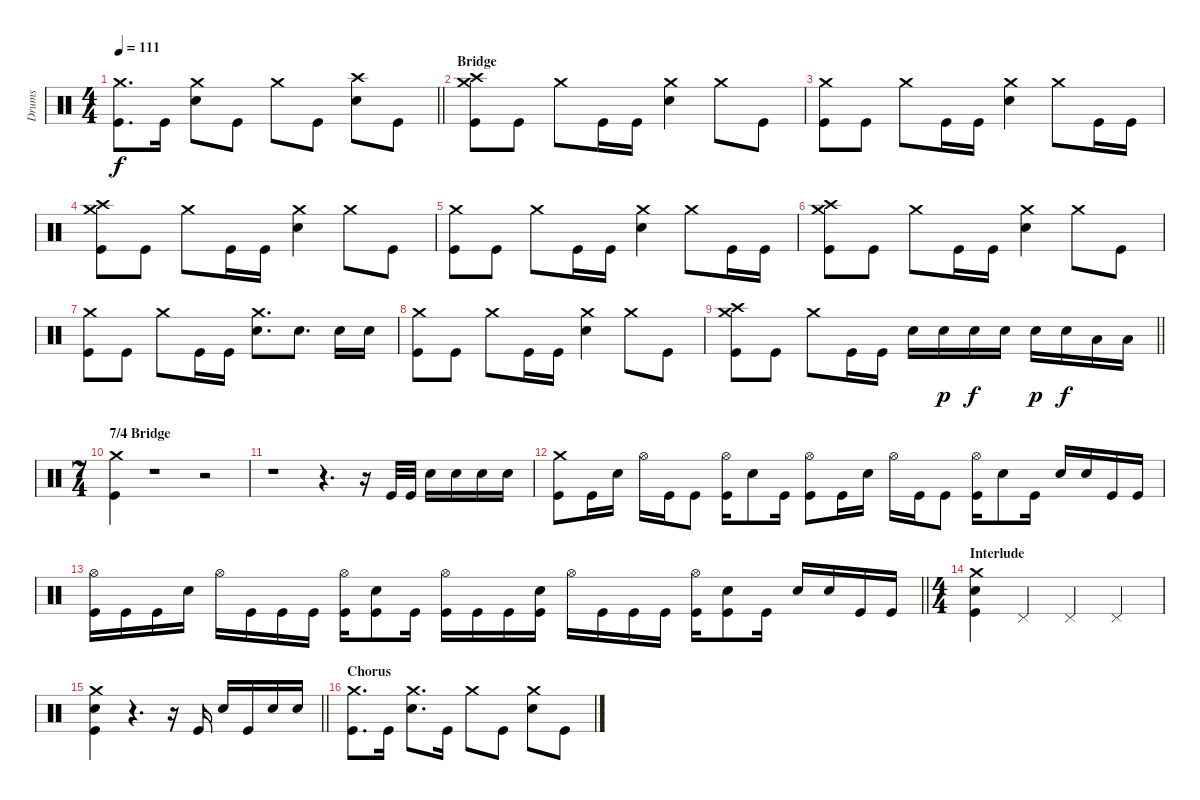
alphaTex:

\track ("Drums" "Drums") {instrument percussion}
\staff {score}
\articulation defaults
\ts (4 4)
\tempo 111
\clef neutral
\barLineRight lightlight
\ks c
("Crash medium (hit)" "Kick (hit)").8{d dy f} "Kick (hit)".16 ("Crash medium (hit)" "Electric Snare (hit)").8 "Kick (hit)".8 "Crash medium (hit)".8 "Kick (hit)".8 ("Crash high (hit)" "Electric Snare (hit)").8 "Kick (hit)".8 |
\section ("" "Bridge")
("Crash medium (hit)" "Crash high (hit)" "Kick (hit)").8 "Kick (hit)".8 "Crash medium (hit)".8 "Kick (hit)".16 "Kick (hit)".16 ("Crash medium (hit)" "Electric Snare (hit)").4 "Crash medium (hit)".8 "Kick (hit)".8 |
("Crash medium (hit)" "Kick (hit)").8 "Kick (hit)".8 "Crash medium (hit)".8 "Kick (hit)".16 "Kick (hit)".16 ("Crash medium (hit)" "Electric Snare (hit)").4 "Crash medium (hit)".8 "Kick (hit)".16 "Kick (hit)".16 |
("Crash medium (hit)" "Crash high (hit)" "Kick (hit)").8 "Kick (hit)".8 "Crash medium (hit)".8 "Kick (hit)".16 "Kick (hit)".16 ("Crash medium (hit)" "Electric Snare (hit)").4 "Crash medium (hit)".8 "Kick (hit)".8 |
("Crash medium (hit)" "Kick (hit)").8 "Kick (hit)".8 "Crash medium (hit)".8 "Kick (hit)".16 "Kick (hit)".16 ("Crash medium (hit)" "Electric Snare (hit)").4 "Crash medium (hit)".8 "Kick (hit)".16 "Kick (hit)".16 |
("Crash medium (hit)" "Crash high (hit)" "Kick (hit)").8 "Kick (hit)".8 "Crash medium (hit)".8 "Kick (hit)".16 "Kick (hit)".16 ("Crash medium (hit)" "Electric Snare (hit)").4 "Crash medium (hit)".8 "Kick (hit)".8 |
("Crash medium (hit)" "Kick (hit)").8 "Kick (hit)".8 "Crash medium (hit)".8 "Kick (hit)".16 "Kick (hit)".16 ("Crash medium (hit)" "Electric Snare (hit)").8{d} "Electric Snare (hit)".8{d} "Electric Snare (hit)".16 "Electric Snare (hit)".16 |
("Crash medium (hit)" "Kick (hit)").8 "Kick (hit)".8 "Crash medium (hit)".8 "Kick (hit)".16 "Kick (hit)".16 ("Crash medium (hit)" "Electric Snare (hit)").4 "Crash medium (hit)".8 "Kick (hit)".8 |
\barLineRight lightlight
("Crash medium (hit)" "Crash high (hit)" "Kick (hit)").8 "Kick (hit)".8 "Crash medium (hit)".8 "Kick (hit)".16 "Kick (hit)".16 "Electric Snare (hit)".16 "Electric Snare (hit)".16{dy p} "Electric Snare (hit)".16{dy f} "Electric Snare (hit)".16 "Electric Snare (hit)".16{dy p} "Electric Snare (hit)".16{dy f} "Low Floor Tom (hit)".16 "Low Floor Tom (hit)".16 |
\ts (7 4)
\section ("" "7/4 Bridge")
("Crash medium (hit)" "Kick (hit)").4 r.1 r.2 |
r.1 r.4{d} r.16 "Kick (hit)".32 "Kick (hit)".32 "Electric Snare (hit)".16 "Electric Snare (hit)".16 "Electric Snare (hit)".16 "Electric Snare (hit)".16 |
("Crash medium (hit)" "Kick (hit)").8 "Kick (hit)".16 "Electric Snare (hit)".16 "Hi-Hat (open)".16 "Kick (hit)".16 "Kick (hit)".8 ("Hi-Hat (open)" "Kick (hit)").16 "Electric Snare (hit)".8 "Kick (hit)".16 ("Hi-Hat (open)" "Kick (hit)").8 "Kick (hit)".16 "Electric Snare (hit)".16 "Hi-Hat (open)".16 "Kick (hit)".16 "Kick (hit)".8 ("Hi-Hat (open)" "Kick (hit)").16 "Electric Snare (hit)".8 "Kick (hit)".16 "Electric Snare (hit)".16 "Electric Snare (hit)".16 "Kick (hit)".16 "Kick (hit)".16 |
\barLineRight lightlight
("Hi-Hat (open)" "Kick (hit)").16 "Kick (hit)".16 "Kick (hit)".16 "Electric Snare (hit)".16 "Hi-Hat (open)".16 "Kick (hit)".16 "Kick (hit)".16 "Kick (hit)".16 ("Hi-Hat (open)" "Kick (hit)").16 ("Electric Snare (hit)" "Kick (hit)").8 "Kick (hit)".16 ("Hi-Hat (open)" "Kick (hit)").16 "Kick (hit)".16 "Kick (hit)".16 ("Electric Snare (hit)" "Kick (hit)").16 "Hi-Hat (open)".16 "Kick (hit)".16 "Kick (hit)".16 "Kick (hit)".16 ("Hi-Hat (open)" "Kick (hit)").16 ("Electric Snare (hit)" "Kick (hit)").8 "Kick (hit)".16 "Electric Snare (hit)".16 "Electric Snare (hit)".16 "Kick (hit)".16 "Kick (hit)".16 |
\ts (4 4)
\section ("" "Interlude")
("Crash medium (hit)" "Electric Snare (hit)" "Kick (hit)").4 "Pedal Hi-Hat (hit)".4 "Pedal Hi-Hat (hit)".4 "Pedal Hi-Hat (hit)".4 |
\barLineRight lightlight
("Crash medium (hit)" "Electric Snare (hit)" "Kick (hit)").4 r.4{d} r.16 "Kick (hit)".16 "Electric Snare (hit)".16 "Kick (hit)".16 "Electric Snare (hit)".16 "Electric Snare (hit)".16 |
\section ("" "Chorus")
("Crash medium (hit)" "Kick (hit)").8{d} "Kick (hit)".16 ("Crash medium (hit)" "Electric Snare (hit)").8{d} "Kick (hit)".16 "Crash medium (hit)".8 "Kick (hit)".8 ("Crash medium (hit)" "Electric Snare (hit)").8 "Kick (hit)".8
